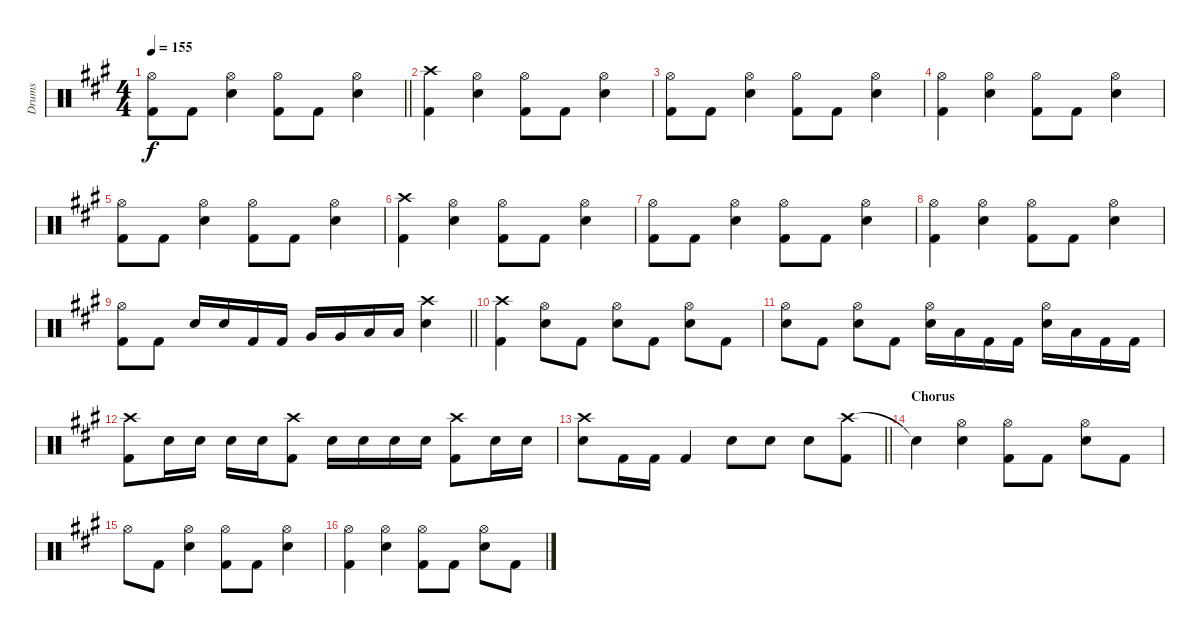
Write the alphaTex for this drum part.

\track ("Drums" "Drums") {instrument percussion}
\staff {score}
\articulation defaults
\ts (4 4)
\tempo 155
\clef neutral
\barLineRight lightlight
\ks a
("Hi-Hat (open)" "Kick (hit) 2").8{dy f} "Kick (hit) 2".8 ("Hi-Hat (open)" "Snare (hit) 2").4 ("Hi-Hat (open)" "Kick (hit) 2").8 "Kick (hit) 2".8 ("Hi-Hat (open)" "Snare (hit) 2").4 |
("Crash high (hit)" "Kick (hit) 2").4 ("Hi-Hat (open)" "Snare (hit) 2").4 ("Hi-Hat (open)" "Kick (hit) 2").8 "Kick (hit) 2".8 ("Hi-Hat (open)" "Snare (hit) 2").4 |
("Hi-Hat (open)" "Kick (hit) 2").8 "Kick (hit) 2".8 ("Hi-Hat (open)" "Snare (hit) 2").4 ("Hi-Hat (open)" "Kick (hit) 2").8 "Kick (hit) 2".8 ("Hi-Hat (open)" "Snare (hit) 2").4 |
("Hi-Hat (open)" "Kick (hit) 2").4 ("Hi-Hat (open)" "Snare (hit) 2").4 ("Hi-Hat (open)" "Kick (hit) 2").8 "Kick (hit) 2".8 ("Hi-Hat (open)" "Snare (hit) 2").4 |
("Hi-Hat (open)" "Kick (hit) 2").8 "Kick (hit) 2".8 ("Hi-Hat (open)" "Snare (hit) 2").4 ("Hi-Hat (open)" "Kick (hit) 2").8 "Kick (hit) 2".8 ("Hi-Hat (open)" "Snare (hit) 2").4 |
("Crash high (hit)" "Kick (hit) 2").4 ("Hi-Hat (open)" "Snare (hit) 2").4 ("Hi-Hat (open)" "Kick (hit) 2").8 "Kick (hit) 2".8 ("Hi-Hat (open)" "Snare (hit) 2").4 |
("Hi-Hat (open)" "Kick (hit) 2").8 "Kick (hit) 2".8 ("Hi-Hat (open)" "Snare (hit) 2").4 ("Hi-Hat (open)" "Kick (hit) 2").8 "Kick (hit) 2".8 ("Hi-Hat (open)" "Snare (hit) 2").4 |
("Hi-Hat (open)" "Kick (hit) 2").4 ("Hi-Hat (open)" "Snare (hit) 2").4 ("Hi-Hat (open)" "Kick (hit) 2").8 "Kick (hit) 2".8 ("Hi-Hat (open)" "Snare (hit) 2").4 |
\barLineRight lightlight
("Hi-Hat (open)" "Kick (hit) 2").8 "Kick (hit) 2".8 "Snare (hit) 2".16 "Snare (hit) 2".16 "Kick (hit) 2".16 "Kick (hit) 2".16 "Very Low Tom (hit)".16 "Very Low Tom (hit)".16 "Low Floor Tom (hit)".16 "Low Floor Tom (hit)".16 ("Crash high (hit)" "Snare (hit) 2").4 |
("Crash high (hit)" "Kick (hit) 2").4 ("Hi-Hat (open)" "Snare (hit) 2").8 "Kick (hit) 2".8 ("Hi-Hat (open)" "Snare (hit) 2").8 "Kick (hit) 2".8 ("Hi-Hat (open)" "Snare (hit) 2").8 "Kick (hit) 2".8 |
("Hi-Hat (open)" "Snare (hit) 2").8 "Kick (hit) 2".8 ("Hi-Hat (open)" "Snare (hit) 2").8 "Kick (hit) 2".8 ("Hi-Hat (open)" "Snare (hit) 2").16 "Low Floor Tom (hit)".16 "Kick (hit) 2".16 "Kick (hit) 2".16 ("Hi-Hat (open)" "Snare (hit) 2").16 "Low Floor Tom (hit)".16 "Kick (hit) 2".16 "Kick (hit) 2".16 |
("Crash high (hit)" "Kick (hit) 2").8 "Snare (hit) 2".16 "Snare (hit) 2".16 "Snare (hit) 2".16 "Snare (hit) 2".16 ("Crash high (hit)" "Kick (hit) 2").8 "Snare (hit) 2".16 "Snare (hit) 2".16 "Snare (hit) 2".16 "Snare (hit) 2".16 ("Crash high (hit)" "Kick (hit) 2").8 "Snare (hit) 2".16 "Snare (hit) 2".16 |
\barLineRight lightlight
("Crash high (hit)" "Snare (hit) 2").8 "Kick (hit) 2".16 "Kick (hit) 2".16 "Kick (hit) 2".4 "Snare (hit) 2".8 "Snare (hit) 2".8 "Snare (hit) 2".8 ("Crash high (hit)" "Kick (hit) 2").8 |
\section ("" "Chorus")
"Snare (hit)"{t}.4 ("Hi-Hat (open)" "Snare (hit) 2").4 ("Hi-Hat (open)" "Kick (hit) 2").8 "Kick (hit) 2".8 ("Hi-Hat (open)" "Snare (hit) 2").8 "Kick (hit) 2".8 |
"Hi-Hat (open)".8 "Kick (hit) 2".8 ("Hi-Hat (open)" "Snare (hit) 2").4 ("Hi-Hat (open)" "Kick (hit) 2").8 "Kick (hit) 2".8 ("Hi-Hat (open)" "Snare (hit) 2").4 |
("Hi-Hat (open)" "Kick (hit) 2").4 ("Hi-Hat (open)" "Snare (hit) 2").4 ("Hi-Hat (open)" "Kick (hit) 2").8 "Kick (hit) 2".8 ("Hi-Hat (open)" "Snare (hit) 2").8 "Kick (hit) 2".8
